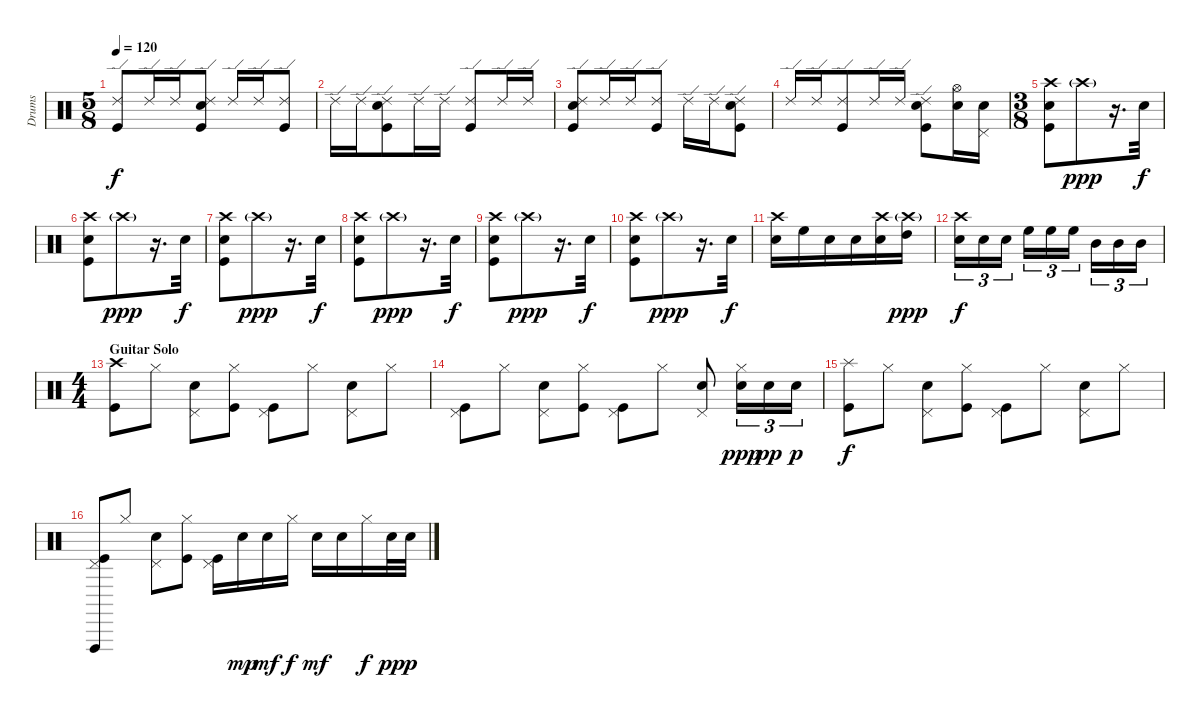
\track ("Drums" "Drums") {instrument percussion}
\staff {score}
\articulation defaults
\ts (5 8)
\tempo 120
\clef neutral
\ks c
("Ride (edge) 2" "Kick (hit)").8{dy f} "Ride (edge) 2".16 "Ride (edge) 2".16 ("Ride (edge) 2" "Electric Snare (hit)" "Kick (hit)").8 "Ride (edge) 2".16 "Ride (edge) 2".16 ("Ride (edge) 2" "Kick (hit)").8 |
"Ride (edge) 2".16 "Ride (edge) 2".16 ("Ride (edge) 2" "Electric Snare (hit)" "Kick (hit)").8 "Ride (edge) 2".16 "Ride (edge) 2".16 ("Ride (edge) 2" "Kick (hit)").8 "Ride (edge) 2".16 "Ride (edge) 2".16 |
("Ride (edge) 2" "Electric Snare (hit)" "Kick (hit)").8 "Ride (edge) 2".16 "Ride (edge) 2".16 ("Ride (edge) 2" "Kick (hit)").8 "Ride (edge) 2".16 "Ride (edge) 2".16 ("Ride (edge) 2" "Electric Snare (hit)" "Kick (hit)").8 |
"Ride (edge) 2".16 "Ride (edge) 2".16 ("Ride (edge) 2" "Kick (hit)").8 "Ride (edge) 2".16 "Ride (edge) 2".16 ("Ride (edge) 2" "Electric Snare (hit)" "Kick (hit)").8 ("Hi-Hat (open)" "Electric Snare (hit)").16 ("Pedal Hi-Hat (hit)" "Electric Snare (hit)").16 |
\ts (3 8)
("Crash high (hit)" "Electric Snare (hit)" "Kick (hit)").8 "Crash high (hit)"{g}.8{dy ppp} r.16{d} "Electric Snare (hit)".32{dy f} |
("Crash high (hit)" "Electric Snare (hit)" "Kick (hit)").8 "Crash high (hit)"{g}.8{dy ppp} r.16{d} "Electric Snare (hit)".32{dy f} |
("Crash high (hit)" "Electric Snare (hit)" "Kick (hit)").8 "Crash high (hit)"{g}.8{dy ppp} r.16{d} "Electric Snare (hit)".32{dy f} |
("Crash high (hit)" "Electric Snare (hit)" "Kick (hit)").8 "Crash high (hit)"{g}.8{dy ppp} r.16{d} "Electric Snare (hit)".32{dy f} |
("Crash high (hit)" "Electric Snare (hit)" "Kick (hit)").8 "Crash high (hit)"{g}.8{dy ppp} r.16{d} "Electric Snare (hit)".32{dy f} |
("Crash high (hit)" "Electric Snare (hit)" "Kick (hit)").8 "Crash high (hit)"{g}.8{dy ppp} r.16{d} "Electric Snare (hit)".32{dy f} |
("Crash high (hit)" "Electric Snare (hit)").16 "High Floor Tom (hit)".16 "Electric Snare (hit)".16 "Electric Snare (hit)".16 ("Crash high (hit)" "Electric Snare (hit)").16 ("Crash high (hit)"{g} "High Tom (hit)").16{dy ppp} |
("Crash high (hit)" "Electric Snare (hit)").16{tu (3 2) dy f} "Electric Snare (hit)".16{tu (3 2)} "Electric Snare (hit)".16{tu (3 2)} "High Floor Tom (hit)".16{tu (3 2)} "High Floor Tom (hit)".16{tu (3 2)} "High Floor Tom (hit)".16{tu (3 2)} "Mid Tom (hit)".16{tu (3 2)} "Mid Tom (hit)".16{tu (3 2)} "Mid Tom (hit)".16{tu (3 2)} |
\ts (4 4)
\section ("" "Guitar Solo")
("Crash high (hit)" "Kick (hit)").8{volume 14} "Hi-Hat (closed)".8 ("Pedal Hi-Hat (hit)" "Electric Snare (hit)").8 ("Hi-Hat (closed)" "Kick (hit)").8 ("Pedal Hi-Hat (hit)" "Kick (hit)").8 "Hi-Hat (closed)".8 ("Pedal Hi-Hat (hit)" "Electric Snare (hit)").8 "Hi-Hat (closed)".8 |
("Pedal Hi-Hat (hit)" "Kick (hit)").8 "Hi-Hat (closed)".8 ("Pedal Hi-Hat (hit)" "Electric Snare (hit)").8 ("Hi-Hat (closed)" "Kick (hit)").8 ("Pedal Hi-Hat (hit)" "Kick (hit)").8 "Hi-Hat (closed)".8 ("Pedal Hi-Hat (hit)" "Electric Snare (hit)").8 ("Hi-Hat (closed)" "Electric Snare (hit)").16{tu (3 2) dy ppp} "Electric Snare (hit)".16{tu (3 2) dy pp} "Electric Snare (hit)".16{tu (3 2) dy p} |
("Splash (hit)" "Kick (hit)").8{dy f} "Hi-Hat (closed)".8 ("Pedal Hi-Hat (hit)" "Electric Snare (hit)").8 ("Hi-Hat (closed)" "Kick (hit)").8 ("Pedal Hi-Hat (hit)" "Kick (hit)").8 "Hi-Hat (closed)".8 ("Pedal Hi-Hat (hit)" "Electric Snare (hit)").8 "Hi-Hat (closed)".8 |
("Pedal Hi-Hat (hit)" "Vibraslap (hit)" "Kick (hit)").8 "Hi-Hat (closed)".8 ("Pedal Hi-Hat (hit)" "Electric Snare (hit)").8 ("Hi-Hat (closed)" "Kick (hit)").8 ("Pedal Hi-Hat (hit)" "Kick (hit)").16 "Electric Snare (hit)".16{dy mp} "Electric Snare (hit)".16{dy mf} "Hi-Hat (closed)".16{dy f} "Electric Snare (hit)".16{dy mf} "Electric Snare (hit)".16 "Hi-Hat (closed)".16{dy f} "Electric Snare (hit)".32{dy pp} "Electric Snare (hit)".32{dy p}
